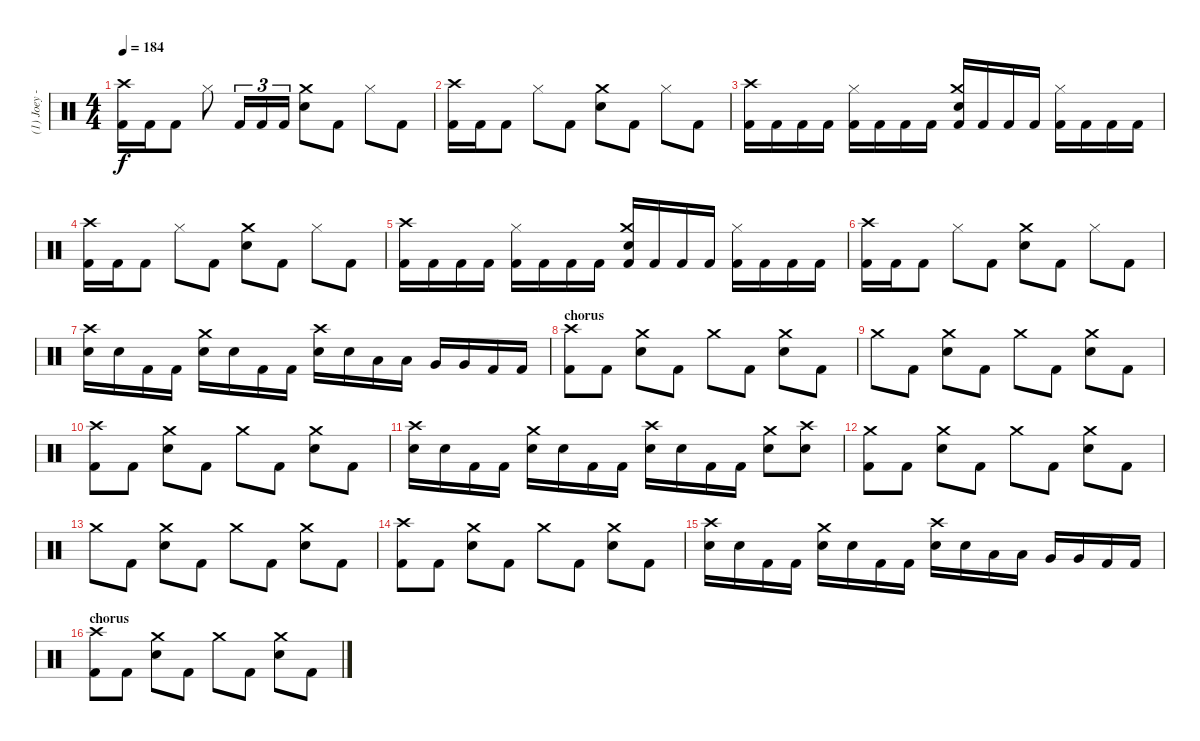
\track ("(1) Joey - drums" "(1) Joey -") {instrument percussion}
\staff {score}
\articulation defaults
\ts (4 4)
\tempo 184
\clef neutral
\ks c
("Crash high (hit)" "Kick (hit) 2").16{dy f} "Kick (hit) 2".16 "Kick (hit) 2".8 "Hi-Hat (closed)".8 "Kick (hit) 2".16{tu (3 2)} "Kick (hit) 2".16{tu (3 2)} "Kick (hit) 2".16{tu (3 2)} ("Crash medium (hit)" "Electric Snare (hit)").8 "Kick (hit) 2".8 "Hi-Hat (closed)".8 "Kick (hit) 2".8 |
("Crash high (hit)" "Kick (hit) 2").16 "Kick (hit) 2".16 "Kick (hit) 2".8 "Hi-Hat (closed)".8 "Kick (hit) 2".8 ("Crash medium (hit)" "Electric Snare (hit)").8 "Kick (hit) 2".8 "Hi-Hat (closed)".8 "Kick (hit) 2".8 |
("Crash high (hit)" "Kick (hit) 2").16 "Kick (hit) 2".16 "Kick (hit) 2".16 "Kick (hit) 2".16 ("Hi-Hat (closed)" "Kick (hit) 2").16 "Kick (hit) 2".16 "Kick (hit) 2".16 "Kick (hit) 2".16 ("Crash medium (hit)" "Electric Snare (hit)" "Kick (hit) 2").16 "Kick (hit) 2".16 "Kick (hit) 2".16 "Kick (hit) 2".16 ("Hi-Hat (closed)" "Kick (hit) 2").16 "Kick (hit) 2".16 "Kick (hit) 2".16 "Kick (hit) 2".16 |
("Crash high (hit)" "Kick (hit) 2").16 "Kick (hit) 2".16 "Kick (hit) 2".8 "Hi-Hat (closed)".8 "Kick (hit) 2".8 ("Crash medium (hit)" "Electric Snare (hit)").8 "Kick (hit) 2".8 "Hi-Hat (closed)".8 "Kick (hit) 2".8 |
("Crash high (hit)" "Kick (hit) 2").16 "Kick (hit) 2".16 "Kick (hit) 2".16 "Kick (hit) 2".16 ("Hi-Hat (closed)" "Kick (hit) 2").16 "Kick (hit) 2".16 "Kick (hit) 2".16 "Kick (hit) 2".16 ("Crash medium (hit)" "Electric Snare (hit)" "Kick (hit) 2").16 "Kick (hit) 2".16 "Kick (hit) 2".16 "Kick (hit) 2".16 ("Hi-Hat (closed)" "Kick (hit) 2").16 "Kick (hit) 2".16 "Kick (hit) 2".16 "Kick (hit) 2".16 |
("Crash high (hit)" "Kick (hit) 2").16 "Kick (hit) 2".16 "Kick (hit) 2".8 "Hi-Hat (closed)".8 "Kick (hit) 2".8 ("Crash medium (hit)" "Electric Snare (hit)").8 "Kick (hit) 2".8 "Hi-Hat (closed)".8 "Kick (hit) 2".8 |
("Crash high (hit)" "Electric Snare (hit)").16 "Electric Snare (hit)".16 "Kick (hit) 2".16 "Kick (hit) 2".16 ("Crash medium (hit)" "Electric Snare (hit)").16 "Electric Snare (hit)".16 "Kick (hit) 2".16 "Kick (hit) 2".16 ("Crash high (hit)" "Electric Snare (hit)").16 "Electric Snare (hit)".16 "Low Tom (hit)".16 "Low Tom (hit)".16 "Very Low Tom (hit)".16 "Very Low Tom (hit)".16 "Kick (hit) 2".16 "Kick (hit) 2".16 |
\section ("" "chorus")
("Crash high (hit)" "Kick (hit) 2").8 "Kick (hit) 2".8 ("Crash medium (hit)" "Electric Snare (hit)").8 "Kick (hit) 2".8 "Crash medium (hit)".8 "Kick (hit) 2".8 ("Crash medium (hit)" "Electric Snare (hit)").8 "Kick (hit) 2".8 |
"Crash medium (hit)".8 "Kick (hit) 2".8 ("Crash medium (hit)" "Electric Snare (hit)").8 "Kick (hit) 2".8 "Crash medium (hit)".8 "Kick (hit) 2".8 ("Crash medium (hit)" "Electric Snare (hit)").8 "Kick (hit) 2".8 |
("Crash high (hit)" "Kick (hit) 2").8 "Kick (hit) 2".8 ("Crash medium (hit)" "Electric Snare (hit)").8 "Kick (hit) 2".8 "Crash medium (hit)".8 "Kick (hit) 2".8 ("Crash medium (hit)" "Electric Snare (hit)").8 "Kick (hit) 2".8 |
("Crash high (hit)" "Electric Snare (hit)").16 "Electric Snare (hit)".16 "Kick (hit) 2".16 "Kick (hit) 2".16 ("Crash medium (hit)" "Electric Snare (hit)").16 "Electric Snare (hit)".16 "Kick (hit) 2".16 "Kick (hit) 2".16 ("Crash high (hit)" "Electric Snare (hit)").16 "Electric Snare (hit)".16 "Kick (hit) 2".16 "Kick (hit) 2".16 ("Crash medium (hit)" "Electric Snare (hit)").8 ("Crash high (hit)" "Electric Snare (hit)").8 |
("Crash medium (hit)" "Kick (hit) 2").8 "Kick (hit) 2".8 ("Crash medium (hit)" "Electric Snare (hit)").8 "Kick (hit) 2".8 "Crash medium (hit)".8 "Kick (hit) 2".8 ("Crash medium (hit)" "Electric Snare (hit)").8 "Kick (hit) 2".8 |
"Crash medium (hit)".8 "Kick (hit) 2".8 ("Crash medium (hit)" "Electric Snare (hit)").8 "Kick (hit) 2".8 "Crash medium (hit)".8 "Kick (hit) 2".8 ("Crash medium (hit)" "Electric Snare (hit)").8 "Kick (hit) 2".8 |
("Crash high (hit)" "Kick (hit) 2").8 "Kick (hit) 2".8 ("Crash medium (hit)" "Electric Snare (hit)").8 "Kick (hit) 2".8 "Crash medium (hit)".8 "Kick (hit) 2".8 ("Crash medium (hit)" "Electric Snare (hit)").8 "Kick (hit) 2".8 |
("Crash high (hit)" "Electric Snare (hit)").16 "Electric Snare (hit)".16 "Kick (hit) 2".16 "Kick (hit) 2".16 ("Crash medium (hit)" "Electric Snare (hit)").16 "Electric Snare (hit)".16 "Kick (hit) 2".16 "Kick (hit) 2".16 ("Crash high (hit)" "Electric Snare (hit)").16 "Electric Snare (hit)".16 "Low Tom (hit)".16 "Low Tom (hit)".16 "Very Low Tom (hit)".16 "Very Low Tom (hit)".16 "Kick (hit) 2".16 "Kick (hit) 2".16 |
\section ("" "chorus")
("Crash high (hit)" "Kick (hit) 2").8 "Kick (hit) 2".8 ("Crash medium (hit)" "Electric Snare (hit)").8 "Kick (hit) 2".8 "Crash medium (hit)".8 "Kick (hit) 2".8 ("Crash medium (hit)" "Electric Snare (hit)").8 "Kick (hit) 2".8
